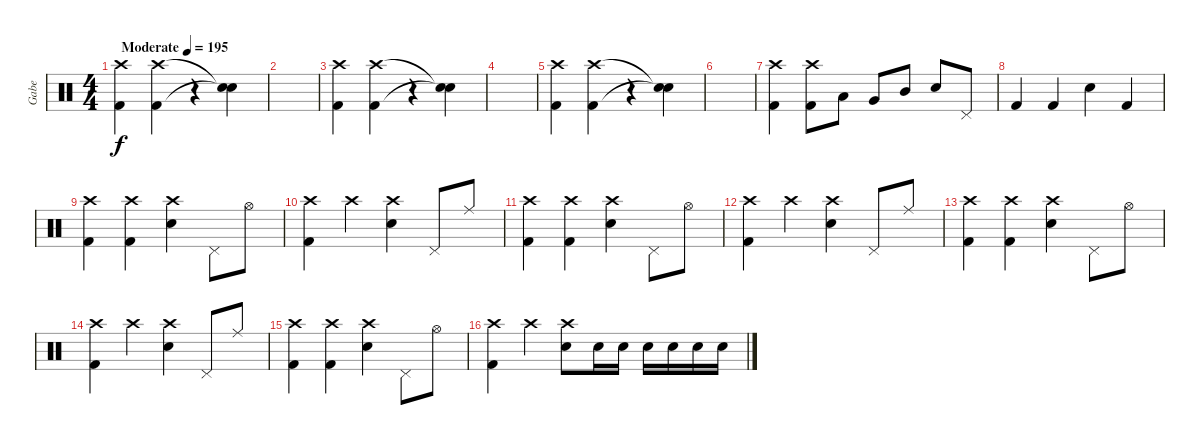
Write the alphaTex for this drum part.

\track ("Gabe" "Gabe") {instrument percussion}
\staff {score}
\articulation defaults
\ts (4 4)
\tempo (195 "Moderate")
\clef neutral
\ks c
("Crash high (hit)" "Kick (hit) 2").4{dy f} ("Crash high (hit)" "Kick (hit) 2").4 r.4 ("Snare (hit)"{t} "Snare (hit)"{t}).4 |
|
("Crash high (hit)" "Kick (hit) 2").4 ("Crash high (hit)" "Kick (hit) 2").4 r.4 ("Snare (hit)"{t} "Snare (hit)"{t}).4 |
|
("Crash high (hit)" "Kick (hit) 2").4 ("Crash high (hit)" "Kick (hit) 2").4 r.4 ("Snare (hit)"{t} "Snare (hit)"{t}).4 |
|
("Crash high (hit)" "Kick (hit) 2").4 ("Crash high (hit)" "Kick (hit) 2").8 "Low Tom (hit)".8 "Very Low Tom (hit)".8 "Mid Tom (hit)".8 "Electric Snare (hit)".8 "Pedal Hi-Hat (hit)".8 |
"Kick (hit) 2".4 "Kick (hit) 2".4 "Electric Snare (hit)".4 "Kick (hit) 2".4 |
("Crash high (hit)" "Kick (hit) 2").4 ("Crash high (hit)" "Kick (hit) 2").4 ("Crash high (hit)" "Electric Snare (hit)").4 "Pedal Hi-Hat (hit)".8 "Hi-Hat (open)".8 |
("Crash high (hit)" "Kick (hit) 2").4 "Crash high (hit)".4 ("Crash high (hit)" "Electric Snare (hit)").4 "Pedal Hi-Hat (hit)".8 "Ride (middle)".8 |
("Crash high (hit)" "Kick (hit) 2").4 ("Crash high (hit)" "Kick (hit) 2").4 ("Crash high (hit)" "Electric Snare (hit)").4 "Pedal Hi-Hat (hit)".8 "Hi-Hat (open)".8 |
("Crash high (hit)" "Kick (hit) 2").4 "Crash high (hit)".4 ("Crash high (hit)" "Electric Snare (hit)").4 "Pedal Hi-Hat (hit)".8 "Ride (middle)".8 |
("Crash high (hit)" "Kick (hit) 2").4 ("Crash high (hit)" "Kick (hit) 2").4 ("Crash high (hit)" "Electric Snare (hit)").4 "Pedal Hi-Hat (hit)".8 "Hi-Hat (open)".8 |
("Crash high (hit)" "Kick (hit) 2").4 "Crash high (hit)".4 ("Crash high (hit)" "Electric Snare (hit)").4 "Pedal Hi-Hat (hit)".8 "Ride (middle)".8 |
("Crash high (hit)" "Kick (hit) 2").4 ("Crash high (hit)" "Kick (hit) 2").4 ("Crash high (hit)" "Electric Snare (hit)").4 "Pedal Hi-Hat (hit)".8 "Hi-Hat (open)".8 |
("Crash high (hit)" "Kick (hit) 2").4 "Crash high (hit)".4 ("Crash high (hit)" "Electric Snare (hit)").8 "Electric Snare (hit)".16 "Electric Snare (hit)".16 "Electric Snare (hit)".16 "Electric Snare (hit)".16 "Electric Snare (hit)".16 "Electric Snare (hit)".16
